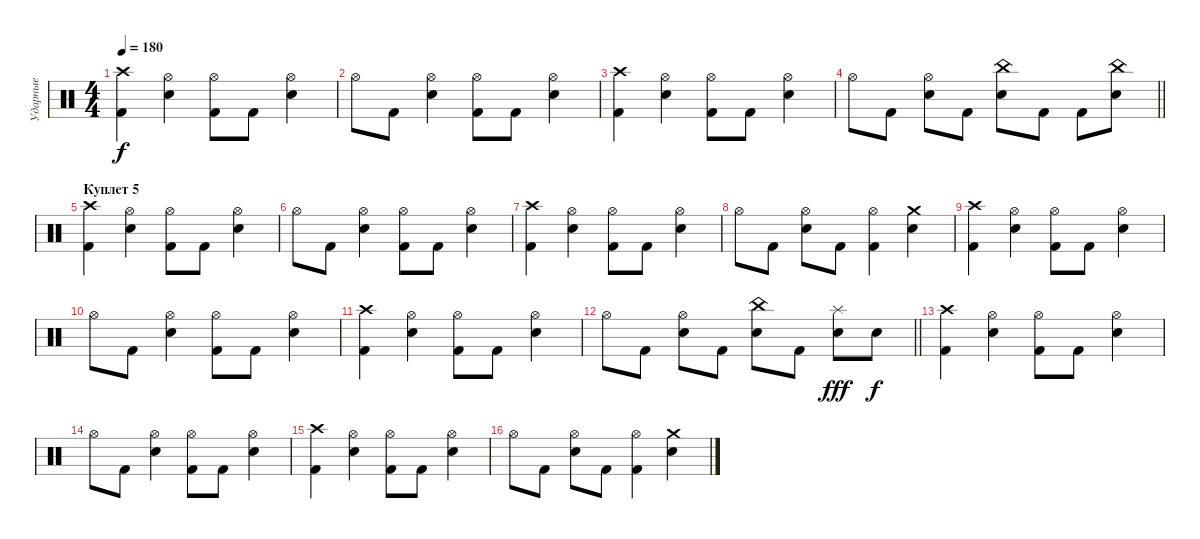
\track ("Ударные" "Ударные") {instrument percussion}
\staff {score}
\articulation defaults
\ts (4 4)
\tempo 180
\clef neutral
\ks c
("Crash high (hit)" "Kick (hit) 2").4{dy f} ("Hi-Hat (open)" "Snare (hit) 2").4 ("Hi-Hat (open)" "Kick (hit) 2").8 "Kick (hit) 2".8 ("Hi-Hat (open)" "Snare (hit) 2").4 |
"Hi-Hat (open)".8 "Kick (hit) 2".8 ("Hi-Hat (open)" "Snare (hit) 2").4 ("Hi-Hat (open)" "Kick (hit) 2").8 "Kick (hit) 2".8 ("Hi-Hat (open)" "Snare (hit) 2").4 |
("Crash high (hit)" "Kick (hit) 2").4 ("Hi-Hat (open)" "Snare (hit) 2").4 ("Hi-Hat (open)" "Kick (hit) 2").8 "Kick (hit) 2".8 ("Hi-Hat (open)" "Snare (hit) 2").4 |
\barLineRight lightlight "Hi-Hat (open)".8 "Kick (hit) 2".8
("Hi-Hat (open)" "Snare (hit) 2").8 "Kick (hit) 2".8 ("China (hit)" "Snare (hit) 2").8 "Kick (hit) 2".8 "Kick (hit) 2".8 ("China (hit)" "Snare (hit) 2").8 |
\section ("" "Куплет 5")
("Crash high (hit)" "Kick (hit) 2").4 ("Hi-Hat (open)" "Snare (hit) 2").4 ("Hi-Hat (open)" "Kick (hit) 2").8 "Kick (hit) 2".8 ("Hi-Hat (open)" "Snare (hit) 2").4 |
"Hi-Hat (open)".8 "Kick (hit) 2".8 ("Hi-Hat (open)" "Snare (hit) 2").4 ("Hi-Hat (open)" "Kick (hit) 2").8 "Kick (hit) 2".8 ("Hi-Hat (open)" "Snare (hit) 2").4 |
("Crash high (hit)" "Kick (hit) 2").4 ("Hi-Hat (open)" "Snare (hit) 2").4 ("Hi-Hat (open)" "Kick (hit) 2").8 "Kick (hit) 2".8 ("Hi-Hat (open)" "Snare (hit) 2").4 |
"Hi-Hat (open)".8 "Kick (hit) 2".8 ("Hi-Hat (open)" "Snare (hit) 2").8 "Kick (hit) 2".8 ("Hi-Hat (open)" "Kick (hit) 2").4 ("Crash medium (hit)" "Snare (hit) 2").4 |
("Crash high (hit)" "Kick (hit) 2").4 ("Hi-Hat (open)" "Snare (hit) 2").4 ("Hi-Hat (open)" "Kick (hit) 2").8 "Kick (hit) 2".8 ("Hi-Hat (open)" "Snare (hit) 2").4 |
"Hi-Hat (open)".8 "Kick (hit) 2".8 ("Hi-Hat (open)" "Snare (hit) 2").4 ("Hi-Hat (open)" "Kick (hit) 2").8 "Kick (hit) 2".8 ("Hi-Hat (open)" "Snare (hit) 2").4 |
("Crash high (hit)" "Kick (hit) 2").4 ("Hi-Hat (open)" "Snare (hit) 2").4 ("Hi-Hat (open)" "Kick (hit) 2").8 "Kick (hit) 2".8 ("Hi-Hat (open)" "Snare (hit) 2").4 |
\barLineRight lightlight "Hi-Hat (open)".8 "Kick (hit) 2".8
("Hi-Hat (open)" "Snare (hit) 2").8 "Kick (hit) 2".8 ("China (hit)" "Snare (hit) 2").8 "Kick (hit) 2".8 ("Splash (hit)" "Snare (hit) 2").8{dy fff} "Snare (hit) 2".8{dy f} |
("Crash high (hit)" "Kick (hit) 2").4 ("Hi-Hat (open)" "Snare (hit) 2").4 ("Hi-Hat (open)" "Kick (hit) 2").8 "Kick (hit) 2".8 ("Hi-Hat (open)" "Snare (hit) 2").4 |
"Hi-Hat (open)".8 "Kick (hit) 2".8 ("Hi-Hat (open)" "Snare (hit) 2").4 ("Hi-Hat (open)" "Kick (hit) 2").8 "Kick (hit) 2".8 ("Hi-Hat (open)" "Snare (hit) 2").4 |
("Crash high (hit)" "Kick (hit) 2").4 ("Hi-Hat (open)" "Snare (hit) 2").4 ("Hi-Hat (open)" "Kick (hit) 2").8 "Kick (hit) 2".8 ("Hi-Hat (open)" "Snare (hit) 2").4 |
"Hi-Hat (open)".8 "Kick (hit) 2".8 ("Hi-Hat (open)" "Snare (hit) 2").8 "Kick (hit) 2".8 ("Hi-Hat (open)" "Kick (hit) 2").4 ("Crash medium (hit)" "Snare (hit) 2").4
